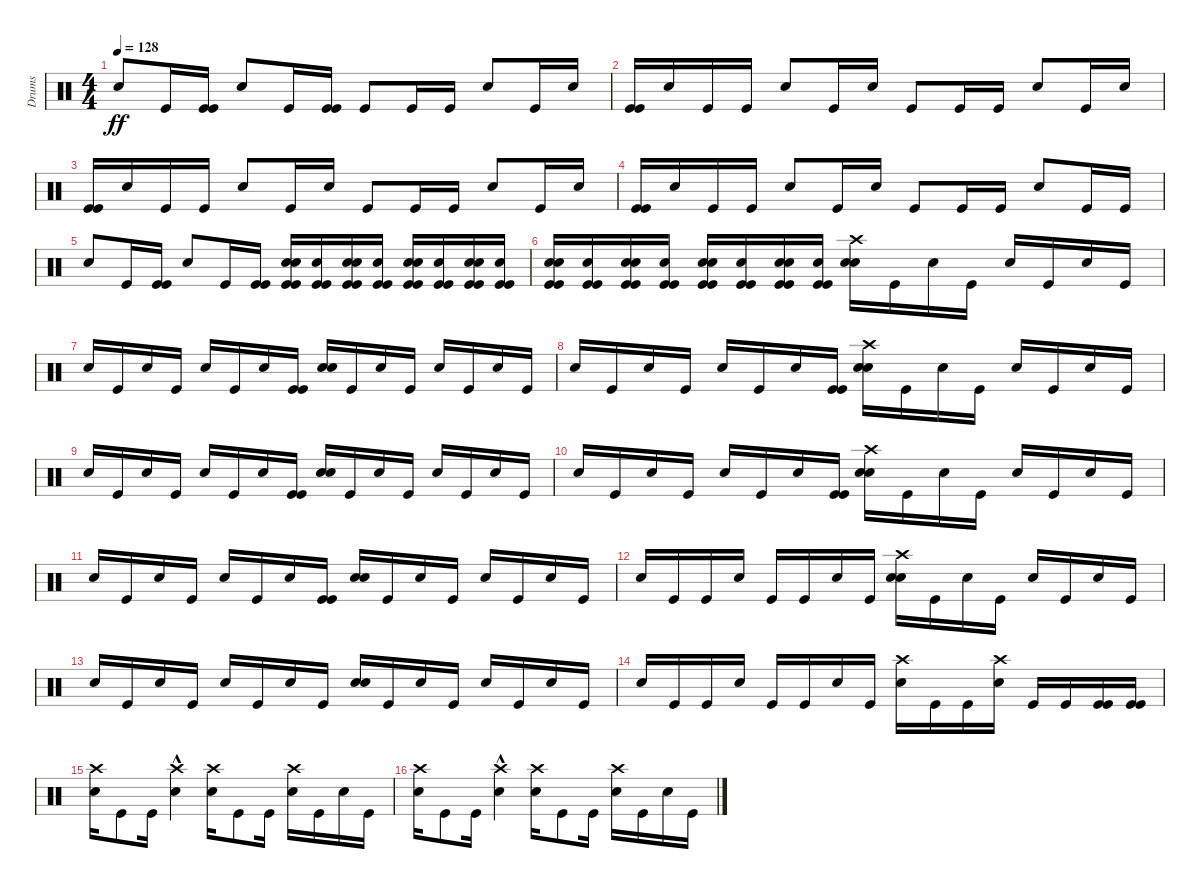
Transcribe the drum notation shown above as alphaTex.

\track ("Drums" "Drums") {instrument percussion}
\staff {score}
\articulation defaults
\ts (4 4)
\tempo 128
\clef neutral
\ks c "Snare (hit) 2".8{dy ff} "Kick (hit)".16
("Kick (hit)" "Kick (hit)").16 "Snare (hit) 2".8 "Kick (hit)".16 ("Kick (hit)" "Kick (hit)").16 "Kick (hit)".8 "Kick (hit)".16 "Kick (hit)".16 "Snare (hit) 2".8 "Kick (hit)".16 "Snare (hit) 2".16 |
("Kick (hit)" "Kick (hit)").16 "Snare (hit) 2".16 "Kick (hit)".16 "Kick (hit)".16 "Snare (hit) 2".8 "Kick (hit)".16 "Snare (hit) 2".16 "Kick (hit)".8 "Kick (hit)".16 "Kick (hit)".16 "Snare (hit) 2".8 "Kick (hit)".16 "Snare (hit) 2".16 |
("Kick (hit)" "Kick (hit)").16 "Snare (hit) 2".16 "Kick (hit)".16 "Kick (hit)".16 "Snare (hit) 2".8 "Kick (hit)".16 "Snare (hit) 2".16 "Kick (hit)".8 "Kick (hit)".16 "Kick (hit)".16 "Snare (hit) 2".8 "Kick (hit)".16 "Snare (hit) 2".16 |
("Kick (hit)" "Kick (hit)").16 "Snare (hit) 2".16 "Kick (hit)".16 "Kick (hit)".16 "Snare (hit) 2".8 "Kick (hit)".16 "Snare (hit) 2".16 "Kick (hit)".8 "Kick (hit)".16 "Kick (hit)".16 "Snare (hit) 2".8 "Kick (hit)".16 "Kick (hit)".16 |
"Snare (hit) 2".8 "Kick (hit)".16 ("Kick (hit)" "Kick (hit)").16 "Snare (hit) 2".8 "Kick (hit)".16 ("Kick (hit)" "Kick (hit)").16 ("Kick (hit)" "Snare (hit) 2" "Kick (hit)" "Snare (hit) 2").16 ("Kick (hit)" "Snare (hit) 2" "Kick (hit)").16 ("Kick (hit)" "Snare (hit) 2" "Kick (hit)" "Snare (hit) 2").16 ("Kick (hit)" "Snare (hit) 2" "Kick (hit)").16 ("Kick (hit)" "Snare (hit) 2" "Kick (hit)" "Snare (hit) 2").16 ("Kick (hit)" "Snare (hit) 2" "Kick (hit)").16 ("Kick (hit)" "Snare (hit) 2" "Kick (hit)" "Snare (hit) 2").16 ("Kick (hit)" "Snare (hit) 2" "Kick (hit)").16 |
("Kick (hit)" "Snare (hit) 2" "Kick (hit)" "Snare (hit) 2").16 ("Kick (hit)" "Snare (hit) 2" "Kick (hit)").16 ("Kick (hit)" "Snare (hit) 2" "Kick (hit)" "Snare (hit) 2").16 ("Kick (hit)" "Snare (hit) 2" "Kick (hit)").16 ("Kick (hit)" "Snare (hit) 2" "Kick (hit)" "Snare (hit) 2").16 ("Kick (hit)" "Snare (hit) 2" "Kick (hit)").16 ("Kick (hit)" "Snare (hit) 2" "Kick (hit)" "Snare (hit) 2").16 ("Kick (hit)" "Snare (hit) 2" "Kick (hit)").16 ("Snare (hit) 2" "Crash high (hit)" "Snare (hit) 2").16 "Kick (hit)".16 "Snare (hit) 2".16 "Kick (hit)".16 "Snare (hit) 2".16 "Kick (hit)".16 "Snare (hit) 2".16 "Kick (hit)".16 |
"Snare (hit) 2".16 "Kick (hit)".16 "Snare (hit) 2".16 "Kick (hit)".16 "Snare (hit) 2".16 "Kick (hit)".16 "Snare (hit) 2".16 ("Kick (hit)" "Kick (hit)").16 ("Snare (hit) 2" "Snare (hit) 2").16 "Kick (hit)".16 "Snare (hit) 2".16 "Kick (hit)".16 "Snare (hit) 2".16 "Kick (hit)".16 "Snare (hit) 2".16 "Kick (hit)".16 |
"Snare (hit) 2".16 "Kick (hit)".16 "Snare (hit) 2".16 "Kick (hit)".16 "Snare (hit) 2".16 "Kick (hit)".16 "Snare (hit) 2".16 ("Kick (hit)" "Kick (hit)").16 ("Snare (hit) 2" "Crash high (hit)" "Snare (hit) 2").16 "Kick (hit)".16 "Snare (hit) 2".16 "Kick (hit)".16 "Snare (hit) 2".16 "Kick (hit)".16 "Snare (hit) 2".16 "Kick (hit)".16 |
"Snare (hit) 2".16 "Kick (hit)".16 "Snare (hit) 2".16 "Kick (hit)".16 "Snare (hit) 2".16 "Kick (hit)".16 "Snare (hit) 2".16 ("Kick (hit)" "Kick (hit)").16 ("Snare (hit) 2" "Snare (hit) 2").16 "Kick (hit)".16 "Snare (hit) 2".16 "Kick (hit)".16 "Snare (hit) 2".16 "Kick (hit)".16 "Snare (hit) 2".16 "Kick (hit)".16 |
"Snare (hit) 2".16 "Kick (hit)".16 "Snare (hit) 2".16 "Kick (hit)".16 "Snare (hit) 2".16 "Kick (hit)".16 "Snare (hit) 2".16 ("Kick (hit)" "Kick (hit)").16 ("Snare (hit) 2" "Crash high (hit)" "Snare (hit) 2").16 "Kick (hit)".16 "Snare (hit) 2".16 "Kick (hit)".16 "Snare (hit) 2".16 "Kick (hit)".16 "Snare (hit) 2".16 "Kick (hit)".16 |
"Snare (hit) 2".16 "Kick (hit)".16 "Snare (hit) 2".16 "Kick (hit)".16 "Snare (hit) 2".16 "Kick (hit)".16 "Snare (hit) 2".16 ("Kick (hit)" "Kick (hit)").16 ("Snare (hit) 2" "Snare (hit) 2").16 "Kick (hit)".16 "Snare (hit) 2".16 "Kick (hit)".16 "Snare (hit) 2".16 "Kick (hit)".16 "Snare (hit) 2".16 "Kick (hit)".16 |
"Snare (hit) 2".16 "Kick (hit)".16 "Kick (hit)".16 "Snare (hit) 2".16 "Kick (hit)".16 "Kick (hit)".16 "Snare (hit) 2".16 "Kick (hit)".16 ("Snare (hit) 2" "Crash high (hit)" "Snare (hit) 2").16 "Kick (hit)".16 "Snare (hit) 2".16 "Kick (hit)".16 "Snare (hit) 2".16 "Kick (hit)".16 "Snare (hit) 2".16 "Kick (hit)".16 |
"Snare (hit) 2".16 "Kick (hit)".16 "Snare (hit) 2".16 "Kick (hit)".16 "Snare (hit) 2".16 "Kick (hit)".16 "Snare (hit) 2".16 "Kick (hit)".16 ("Snare (hit) 2" "Snare (hit) 2").16 "Kick (hit)".16 "Snare (hit) 2".16 "Kick (hit)".16 "Snare (hit) 2".16 "Kick (hit)".16 "Snare (hit) 2".16 "Kick (hit)".16 |
"Snare (hit) 2".16 "Kick (hit)".16 "Kick (hit)".16 "Snare (hit) 2".16 "Kick (hit)".16 "Kick (hit)".16 "Snare (hit) 2".16 "Kick (hit)".16 ("Snare (hit) 2" "Crash high (hit)").16 "Kick (hit)".16 "Kick (hit)".16 ("Snare (hit) 2" "Crash high (hit)").16 "Kick (hit)".16 "Kick (hit)".16 ("Kick (hit)" "Kick (hit)").16 ("Kick (hit)" "Kick (hit)").16 |
("Snare (hit) 2" "Crash high (hit)").16 "Kick (hit)".8 "Kick (hit)".16 ("Snare (hit) 2"{hac} "Crash high (hit)"{hac}).4 ("Snare (hit) 2" "Crash high (hit)").16 "Kick (hit)".8 "Kick (hit)".16 ("Snare (hit) 2" "Crash high (hit)").16 "Kick (hit)".16 "Snare (hit) 2".16 "Kick (hit)".16 |
("Snare (hit) 2" "Crash high (hit)").16 "Kick (hit)".8 "Kick (hit)".16 ("Snare (hit) 2"{hac} "Crash high (hit)"{hac}).4 ("Snare (hit) 2" "Crash high (hit)").16 "Kick (hit)".8 "Kick (hit)".16 ("Snare (hit) 2" "Crash high (hit)").16 "Kick (hit)".16 "Snare (hit) 2".16 "Kick (hit)".16
